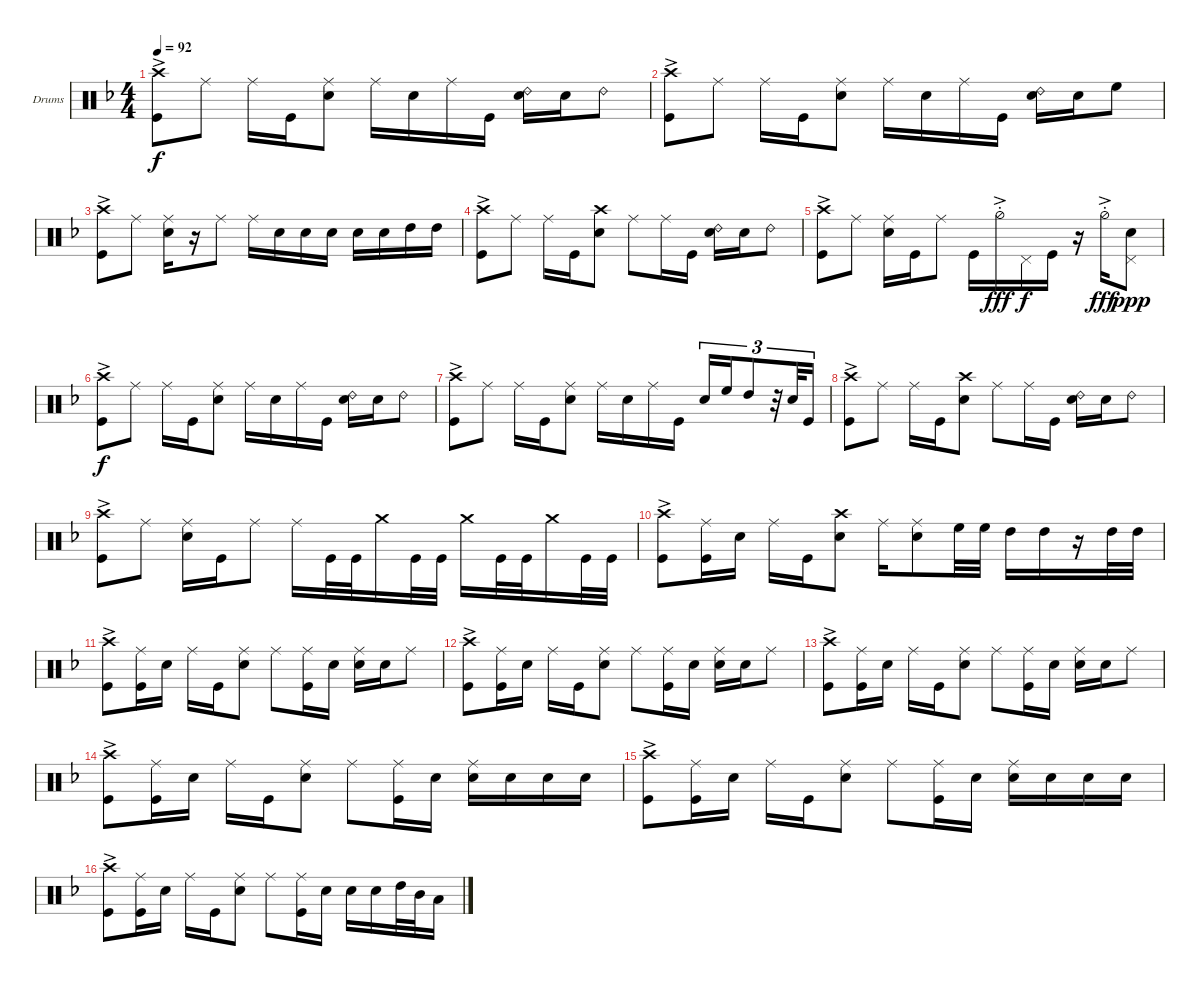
\defaultSystemsLayout 4
\bracketExtendMode groupsimilarinstruments
\firstSystemTrackNameOrientation horizontal
\otherSystemsTrackNameOrientation horizontal
\track ("Drumkit (Collins)" "Drums") {instrument percussion}
\staff {score}
\articulation defaults
\ts (4 4)
\tempo 92
\clef neutral
\ks dminor
("Kick (hit)" "Crash high (hit)"{ac}).8{dy f} "Ride (middle)".8 "Ride (middle)".16 "Kick (hit)".16 ("Snare (hit) 2" "Ride (middle)").8 "Ride (middle)".16 "Snare (hit) 2".16 "Ride (middle)".16 "Kick (hit)".16 ("Snare (hit) 2" "Ride (bell) 2").16 "Snare (hit) 2".16 "Ride (bell) 2".8 |
("Kick (hit)" "Crash high (hit)"{ac}).8 "Ride (middle)".8 "Ride (middle)".16 "Kick (hit)".16 ("Snare (hit) 2" "Ride (middle)").8 "Ride (middle)".16 "Snare (hit) 2".16 "Ride (middle)".16 "Kick (hit)".16 ("Snare (hit) 2" "Ride (bell) 2").16 "Snare (hit) 2".16 "High Floor Tom (hit)".8 |
("Kick (hit)" "Crash high (hit)"{ac}).8 "Ride (middle)".8 ("Ride (middle)" "Snare (hit) 2").16 r.16 "Ride (middle)".8 "Ride (middle)".16 "Snare (hit) 2".16 "Snare (hit) 2".16 "Snare (hit) 2".16 "Snare (hit) 2".16 "Snare (hit) 2".16 "High Tom (hit)".16 "High Tom (hit)".16 |
("Kick (hit)" "Crash high (hit)"{ac}).8 "Ride (middle)".8 "Ride (middle)".16 "Kick (hit)".16 ("Crash high (hit)" "Snare (hit) 2").8 "Ride (middle)".8 "Ride (middle)".16 "Kick (hit)".16 ("Snare (hit) 2" "Ride (bell) 2").16 "Snare (hit) 2".16 "Ride (bell) 2".8 |
("Kick (hit)" "Crash high (hit)"{ac}).8 "Ride (middle)".8 ("Ride (middle)" "Snare (hit) 2").16 "Kick (hit)".16 "Ride (middle)".8 "Kick (hit)".16 "Hi-Hat (half)"{ac st}.16{dy fff} "Pedal Hi-Hat (hit)".16{dy f} "Kick (hit)".16 r.16 "Hi-Hat (half)"{ac st}.16{dy fff} ("Snare (hit) 2" "Pedal Hi-Hat (hit)").8{dy ppp} |
("Kick (hit)" "Crash high (hit)"{ac}).8{dy f} "Ride (middle)".8 "Ride (middle)".16 "Kick (hit)".16 ("Snare (hit) 2" "Ride (middle)").8 "Ride (middle)".16 "Snare (hit) 2".16 "Ride (middle)".16 "Kick (hit)".16 ("Snare (hit) 2" "Ride (bell) 2").16 "Snare (hit) 2".16 "Ride (bell) 2".8 |
("Kick (hit)" "Crash high (hit)"{ac}).8 "Ride (middle)".8 "Ride (middle)".16 "Kick (hit)".16 ("Snare (hit) 2" "Ride (middle)").8 "Ride (middle)".16 "Snare (hit) 2".16 "Ride (middle)".16 "Kick (hit)".16 "Snare (hit) 2".16{tu (3 2)} "High Floor Tom (hit)".16{tu (3 2)} "High Tom (hit)".8{tu (3 2)} r.32{tu (3 2)} "Snare (hit) 2".32{tu (3 2)} "Kick (hit)".16{tu (3 2)} |
("Kick (hit)" "Crash high (hit)"{ac}).8 "Ride (middle)".8 "Ride (middle)".16 "Kick (hit)".16 ("Crash high (hit)" "Snare (hit) 2").8 "Ride (middle)".8 "Ride (middle)".16 "Kick (hit)".16 ("Snare (hit) 2" "Ride (bell) 2").16 "Snare (hit) 2".16 "Ride (bell) 2".8 |
("Kick (hit)" "Crash high (hit)"{ac}).8 "Ride (middle)".8 ("Ride (middle)" "Snare (hit) 2").16 "Kick (hit)".16 "Ride (middle)".8 "Ride (middle)".16 "Kick (hit)".32 "Kick (hit)".32 "Crash medium (hit)".16 "Kick (hit)".32 "Kick (hit)".32 "Crash medium (hit)".16 "Kick (hit)".32 "Kick (hit)".32 "Crash medium (hit)".16 "Kick (hit)".32 "Kick (hit)".32 |
("Kick (hit)" "Crash high (hit)"{ac}).8 ("Kick (hit)" "Ride (middle)").16 "Snare (hit) 2".16 "Ride (middle)".16 "Kick (hit)".16 ("Crash high (hit)" "Snare (hit) 2").8 "Ride (middle)".16 ("Ride (middle)" "Snare (hit) 2").8 "High Floor Tom (hit)".32 "High Floor Tom (hit)".32 "High Tom (hit)".16 "High Tom (hit)".16 r.16 "High Tom (hit)".32 "High Tom (hit)".32 |
("Kick (hit)" "Crash high (hit)"{ac}).8 ("Kick (hit)" "Ride (middle)").16 "Snare (hit) 2".16 "Ride (middle)".16 "Kick (hit)".16 ("Snare (hit) 2" "Ride (middle)").8 "Ride (middle)".8 ("Ride (middle)" "Kick (hit)").16 "Snare (hit) 2".16 ("Snare (hit) 2" "Ride (middle)").16 "Snare (hit) 2".16 "Ride (middle)".8 |
("Kick (hit)" "Crash high (hit)"{ac}).8 ("Kick (hit)" "Ride (middle)").16 "Snare (hit) 2".16 "Ride (middle)".16 "Kick (hit)".16 ("Snare (hit) 2" "Ride (middle)").8 "Ride (middle)".8 ("Ride (middle)" "Kick (hit)").16 "Snare (hit) 2".16 ("Snare (hit) 2" "Ride (middle)").16 "Snare (hit) 2".16 "Ride (middle)".8 |
("Kick (hit)" "Crash high (hit)"{ac}).8 ("Kick (hit)" "Ride (middle)").16 "Snare (hit) 2".16 "Ride (middle)".16 "Kick (hit)".16 ("Snare (hit) 2" "Ride (middle)").8 "Ride (middle)".8 ("Ride (middle)" "Kick (hit)").16 "Snare (hit) 2".16 ("Snare (hit) 2" "Ride (middle)").16 "Snare (hit) 2".16 "Ride (middle)".8 |
("Kick (hit)" "Crash high (hit)"{ac}).8 ("Kick (hit)" "Ride (middle)").16 "Snare (hit) 2".16 "Ride (middle)".16 "Kick (hit)".16 ("Snare (hit) 2" "Ride (middle)").8 "Ride (middle)".8 ("Ride (middle)" "Kick (hit)").16 "Snare (hit) 2".16 ("Snare (hit) 2" "Ride (middle)").16 "Snare (hit) 2".16 "Snare (hit) 2".16 "Snare (hit) 2".16 |
("Kick (hit)" "Crash high (hit)"{ac}).8 ("Kick (hit)" "Ride (middle)").16 "Snare (hit) 2".16 "Ride (middle)".16 "Kick (hit)".16 ("Snare (hit) 2" "Ride (middle)").8 "Ride (middle)".8 ("Ride (middle)" "Kick (hit)").16 "Snare (hit) 2".16 ("Snare (hit) 2" "Ride (middle)").16 "Snare (hit) 2".16 "Snare (hit) 2".16 "Snare (hit) 2".16 |
("Kick (hit)" "Crash high (hit)"{ac}).8 ("Kick (hit)" "Ride (middle)").16 "Snare (hit) 2".16 "Ride (middle)".16 "Kick (hit)".16 ("Snare (hit) 2" "Ride (middle)").8 "Ride (middle)".8 ("Ride (middle)" "Kick (hit)").16 "Snare (hit) 2".16 "Snare (hit) 2".16 "Snare (hit) 2".16 "High Tom (hit)".32 "Mid Tom (hit)".32 "Low Tom (hit)".16
